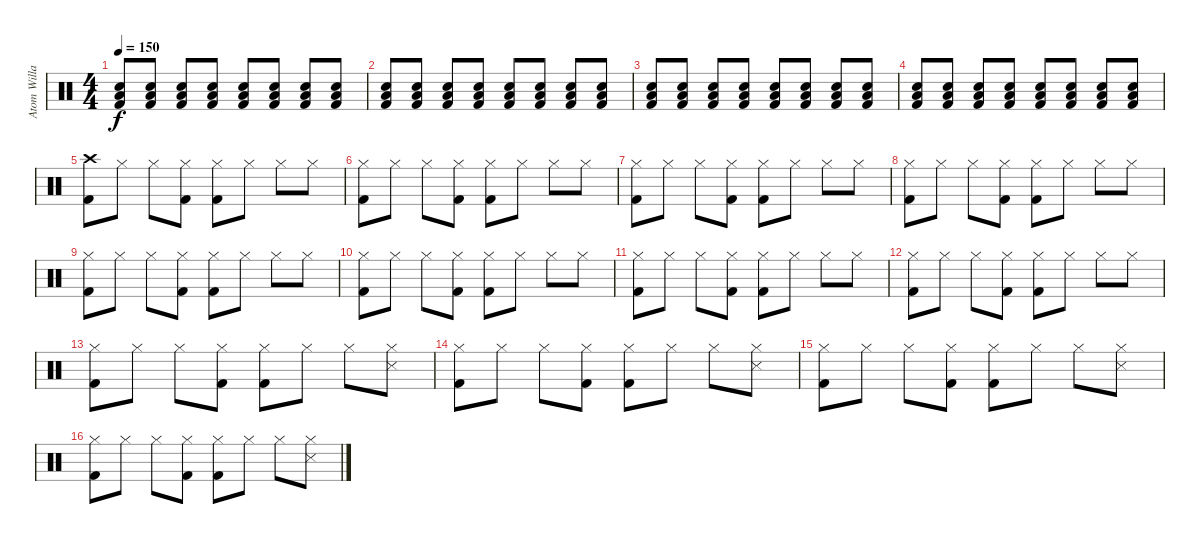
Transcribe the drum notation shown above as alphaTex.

\track ("Atom Willard - Drums" "Atom Willa") {instrument percussion}
\staff {score}
\articulation defaults
\ts (4 4)
\tempo 150
\clef neutral
\ks c
("Low Tom (hit)" "Electric Snare (hit)" "Kick (hit) 2").8{dy f} ("Low Tom (hit)" "Electric Snare (hit)" "Kick (hit) 2").8 ("Low Tom (hit)" "Electric Snare (hit)" "Kick (hit) 2").8 ("Low Tom (hit)" "Electric Snare (hit)" "Kick (hit) 2").8 ("Low Tom (hit)" "Electric Snare (hit)" "Kick (hit) 2").8 ("Low Tom (hit)" "Electric Snare (hit)" "Kick (hit) 2").8 ("Low Tom (hit)" "Electric Snare (hit)" "Kick (hit) 2").8 ("Low Tom (hit)" "Electric Snare (hit)" "Kick (hit) 2").8 |
("Low Tom (hit)" "Electric Snare (hit)" "Kick (hit) 2").8 ("Low Tom (hit)" "Electric Snare (hit)" "Kick (hit) 2").8 ("Low Tom (hit)" "Electric Snare (hit)" "Kick (hit) 2").8 ("Low Tom (hit)" "Electric Snare (hit)" "Kick (hit) 2").8 ("Low Tom (hit)" "Electric Snare (hit)" "Kick (hit) 2").8 ("Low Tom (hit)" "Electric Snare (hit)" "Kick (hit) 2").8 ("Low Tom (hit)" "Electric Snare (hit)" "Kick (hit) 2").8 ("Low Tom (hit)" "Electric Snare (hit)" "Kick (hit) 2").8 |
("Low Tom (hit)" "Electric Snare (hit)" "Kick (hit) 2").8 ("Low Tom (hit)" "Electric Snare (hit)" "Kick (hit) 2").8 ("Low Tom (hit)" "Electric Snare (hit)" "Kick (hit) 2").8 ("Low Tom (hit)" "Electric Snare (hit)" "Kick (hit) 2").8 ("Low Tom (hit)" "Electric Snare (hit)" "Kick (hit) 2").8 ("Low Tom (hit)" "Electric Snare (hit)" "Kick (hit) 2").8 ("Low Tom (hit)" "Electric Snare (hit)" "Kick (hit) 2").8 ("Low Tom (hit)" "Electric Snare (hit)" "Kick (hit) 2").8 |
("Low Tom (hit)" "Electric Snare (hit)" "Kick (hit) 2").8 ("Low Tom (hit)" "Electric Snare (hit)" "Kick (hit) 2").8 ("Low Tom (hit)" "Electric Snare (hit)" "Kick (hit) 2").8 ("Low Tom (hit)" "Electric Snare (hit)" "Kick (hit) 2").8 ("Low Tom (hit)" "Electric Snare (hit)" "Kick (hit) 2").8 ("Low Tom (hit)" "Electric Snare (hit)" "Kick (hit) 2").8 ("Low Tom (hit)" "Electric Snare (hit)" "Kick (hit) 2").8 ("Low Tom (hit)" "Electric Snare (hit)" "Kick (hit) 2").8 |
("Crash high (hit)" "Kick (hit) 2").8 "Hi-Hat (closed)".8 "Hi-Hat (closed)".8 ("Hi-Hat (closed)" "Kick (hit) 2").8 ("Hi-Hat (closed)" "Kick (hit) 2").8 "Hi-Hat (closed)".8 "Hi-Hat (closed)".8 "Hi-Hat (closed)".8 |
("Hi-Hat (closed)" "Kick (hit) 2").8 "Hi-Hat (closed)".8 "Hi-Hat (closed)".8 ("Hi-Hat (closed)" "Kick (hit) 2").8 ("Hi-Hat (closed)" "Kick (hit) 2").8 "Hi-Hat (closed)".8 "Hi-Hat (closed)".8 "Hi-Hat (closed)".8 |
("Hi-Hat (closed)" "Kick (hit) 2").8 "Hi-Hat (closed)".8 "Hi-Hat (closed)".8 ("Hi-Hat (closed)" "Kick (hit) 2").8 ("Hi-Hat (closed)" "Kick (hit) 2").8 "Hi-Hat (closed)".8 "Hi-Hat (closed)".8 "Hi-Hat (closed)".8 |
("Hi-Hat (closed)" "Kick (hit) 2").8 "Hi-Hat (closed)".8 "Hi-Hat (closed)".8 ("Hi-Hat (closed)" "Kick (hit) 2").8 ("Hi-Hat (closed)" "Kick (hit) 2").8 "Hi-Hat (closed)".8 "Hi-Hat (closed)".8 "Hi-Hat (closed)".8 |
("Hi-Hat (closed)" "Kick (hit) 2").8 "Hi-Hat (closed)".8 "Hi-Hat (closed)".8 ("Hi-Hat (closed)" "Kick (hit) 2").8 ("Hi-Hat (closed)" "Kick (hit) 2").8 "Hi-Hat (closed)".8 "Hi-Hat (closed)".8 "Hi-Hat (closed)".8 |
("Hi-Hat (closed)" "Kick (hit) 2").8 "Hi-Hat (closed)".8 "Hi-Hat (closed)".8 ("Hi-Hat (closed)" "Kick (hit) 2").8 ("Hi-Hat (closed)" "Kick (hit) 2").8 "Hi-Hat (closed)".8 "Hi-Hat (closed)".8 "Hi-Hat (closed)".8 |
("Hi-Hat (closed)" "Kick (hit) 2").8 "Hi-Hat (closed)".8 "Hi-Hat (closed)".8 ("Hi-Hat (closed)" "Kick (hit) 2").8 ("Hi-Hat (closed)" "Kick (hit) 2").8 "Hi-Hat (closed)".8 "Hi-Hat (closed)".8 "Hi-Hat (closed)".8 |
("Hi-Hat (closed)" "Kick (hit) 2").8 "Hi-Hat (closed)".8 "Hi-Hat (closed)".8 ("Hi-Hat (closed)" "Kick (hit) 2").8 ("Hi-Hat (closed)" "Kick (hit) 2").8 "Hi-Hat (closed)".8 "Hi-Hat (closed)".8 "Hi-Hat (closed)".8 |
("Hi-Hat (closed)" "Kick (hit) 2").8 "Hi-Hat (closed)".8 "Hi-Hat (closed)".8 ("Hi-Hat (closed)" "Kick (hit) 2").8 ("Hi-Hat (closed)" "Kick (hit) 2").8 "Hi-Hat (closed)".8 "Hi-Hat (closed)".8 ("Hi-Hat (closed)" "Snare (side stick) 3").8 |
("Hi-Hat (closed)" "Kick (hit) 2").8 "Hi-Hat (closed)".8 "Hi-Hat (closed)".8 ("Hi-Hat (closed)" "Kick (hit) 2").8 ("Hi-Hat (closed)" "Kick (hit) 2").8 "Hi-Hat (closed)".8 "Hi-Hat (closed)".8 ("Hi-Hat (closed)" "Snare (side stick) 3").8 |
("Hi-Hat (closed)" "Kick (hit) 2").8 "Hi-Hat (closed)".8 "Hi-Hat (closed)".8 ("Hi-Hat (closed)" "Kick (hit) 2").8 ("Hi-Hat (closed)" "Kick (hit) 2").8 "Hi-Hat (closed)".8 "Hi-Hat (closed)".8 ("Hi-Hat (closed)" "Snare (side stick) 3").8 |
("Hi-Hat (closed)" "Kick (hit) 2").8 "Hi-Hat (closed)".8 "Hi-Hat (closed)".8 ("Hi-Hat (closed)" "Kick (hit) 2").8 ("Hi-Hat (closed)" "Kick (hit) 2").8 "Hi-Hat (closed)".8 "Hi-Hat (closed)".8 ("Hi-Hat (closed)" "Snare (side stick) 3").8
